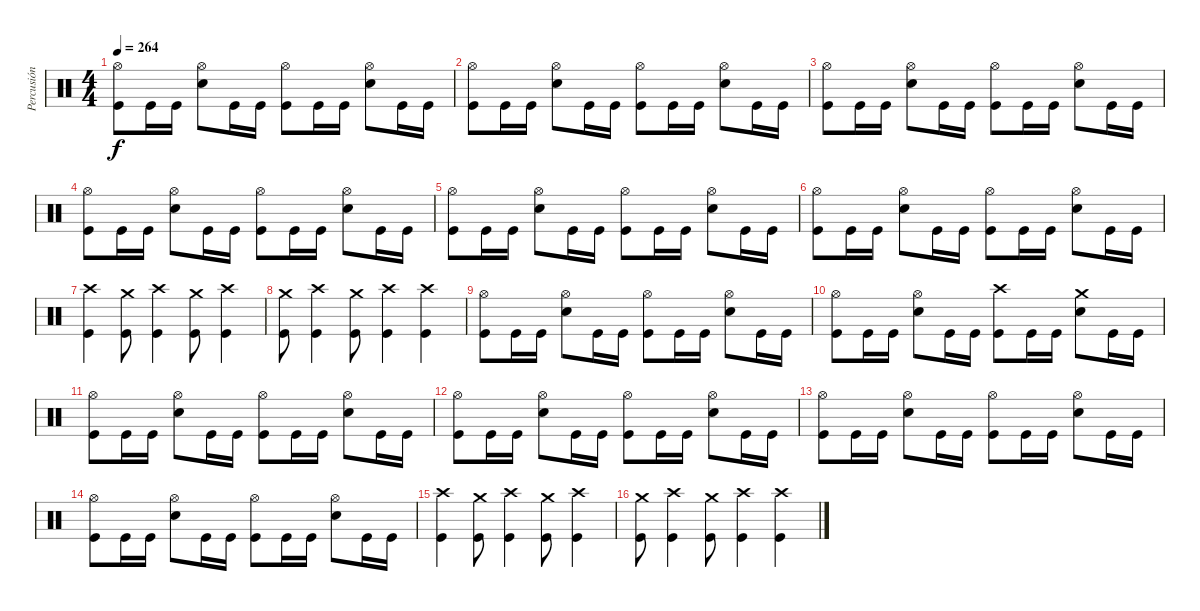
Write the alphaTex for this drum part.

\track ("Percusión" "Percusión") {instrument percussion}
\staff {score}
\articulation defaults
\ts (4 4)
\tempo 264
\clef neutral
\ks c
("Hi-Hat (open)" "Kick (hit)").8{dy f} "Kick (hit)".16 "Kick (hit)".16 ("Hi-Hat (open)" "Snare (hit) 2").8 "Kick (hit)".16 "Kick (hit)".16 ("Hi-Hat (open)" "Kick (hit)").8 "Kick (hit)".16 "Kick (hit)".16 ("Hi-Hat (open)" "Snare (hit) 2").8 "Kick (hit)".16 "Kick (hit)".16 |
("Hi-Hat (open)" "Kick (hit)").8 "Kick (hit)".16 "Kick (hit)".16 ("Hi-Hat (open)" "Snare (hit) 2").8 "Kick (hit)".16 "Kick (hit)".16 ("Hi-Hat (open)" "Kick (hit)").8 "Kick (hit)".16 "Kick (hit)".16 ("Hi-Hat (open)" "Snare (hit) 2").8 "Kick (hit)".16 "Kick (hit)".16 |
("Hi-Hat (open)" "Kick (hit)").8 "Kick (hit)".16 "Kick (hit)".16 ("Hi-Hat (open)" "Snare (hit) 2").8 "Kick (hit)".16 "Kick (hit)".16 ("Hi-Hat (open)" "Kick (hit)").8 "Kick (hit)".16 "Kick (hit)".16 ("Hi-Hat (open)" "Snare (hit) 2").8 "Kick (hit)".16 "Kick (hit)".16 |
("Hi-Hat (open)" "Kick (hit)").8 "Kick (hit)".16 "Kick (hit)".16 ("Hi-Hat (open)" "Snare (hit) 2").8 "Kick (hit)".16 "Kick (hit)".16 ("Hi-Hat (open)" "Kick (hit)").8 "Kick (hit)".16 "Kick (hit)".16 ("Hi-Hat (open)" "Snare (hit) 2").8 "Kick (hit)".16 "Kick (hit)".16 |
("Hi-Hat (open)" "Kick (hit)").8 "Kick (hit)".16 "Kick (hit)".16 ("Hi-Hat (open)" "Snare (hit) 2").8 "Kick (hit)".16 "Kick (hit)".16 ("Hi-Hat (open)" "Kick (hit)").8 "Kick (hit)".16 "Kick (hit)".16 ("Hi-Hat (open)" "Snare (hit) 2").8 "Kick (hit)".16 "Kick (hit)".16 |
("Hi-Hat (open)" "Kick (hit)").8 "Kick (hit)".16 "Kick (hit)".16 ("Hi-Hat (open)" "Snare (hit) 2").8 "Kick (hit)".16 "Kick (hit)".16 ("Hi-Hat (open)" "Kick (hit)").8 "Kick (hit)".16 "Kick (hit)".16 ("Hi-Hat (open)" "Snare (hit) 2").8 "Kick (hit)".16 "Kick (hit)".16 |
("Crash high (hit)" "Kick (hit)").4 ("Crash medium (hit)" "Kick (hit)").8 ("Crash high (hit)" "Kick (hit)").4 ("Crash medium (hit)" "Kick (hit)").8 ("Crash high (hit)" "Kick (hit)").4 |
("Crash medium (hit)" "Kick (hit)").8 ("Crash high (hit)" "Kick (hit)").4 ("Crash medium (hit)" "Kick (hit)").8 ("Crash high (hit)" "Kick (hit)").4 ("Crash high (hit)" "Kick (hit)").4 |
("Hi-Hat (open)" "Kick (hit)").8 "Kick (hit)".16 "Kick (hit)".16 ("Hi-Hat (open)" "Snare (hit) 2").8 "Kick (hit)".16 "Kick (hit)".16 ("Hi-Hat (open)" "Kick (hit)").8 "Kick (hit)".16 "Kick (hit)".16 ("Hi-Hat (open)" "Snare (hit) 2").8 "Kick (hit)".16 "Kick (hit)".16 |
("Hi-Hat (open)" "Kick (hit)").8 "Kick (hit)".16 "Kick (hit)".16 ("Hi-Hat (open)" "Snare (hit) 2").8 "Kick (hit)".16 "Kick (hit)".16 ("Crash high (hit)" "Kick (hit)").8 "Kick (hit)".16 "Kick (hit)".16 ("Crash medium (hit)" "Snare (hit) 2").8 "Kick (hit)".16 "Kick (hit)".16 |
("Hi-Hat (open)" "Kick (hit)").8 "Kick (hit)".16 "Kick (hit)".16 ("Hi-Hat (open)" "Snare (hit) 2").8 "Kick (hit)".16 "Kick (hit)".16 ("Hi-Hat (open)" "Kick (hit)").8 "Kick (hit)".16 "Kick (hit)".16 ("Hi-Hat (open)" "Snare (hit) 2").8 "Kick (hit)".16 "Kick (hit)".16 |
("Hi-Hat (open)" "Kick (hit)").8 "Kick (hit)".16 "Kick (hit)".16 ("Hi-Hat (open)" "Snare (hit) 2").8 "Kick (hit)".16 "Kick (hit)".16 ("Hi-Hat (open)" "Kick (hit)").8 "Kick (hit)".16 "Kick (hit)".16 ("Hi-Hat (open)" "Snare (hit) 2").8 "Kick (hit)".16 "Kick (hit)".16 |
("Hi-Hat (open)" "Kick (hit)").8 "Kick (hit)".16 "Kick (hit)".16 ("Hi-Hat (open)" "Snare (hit) 2").8 "Kick (hit)".16 "Kick (hit)".16 ("Hi-Hat (open)" "Kick (hit)").8 "Kick (hit)".16 "Kick (hit)".16 ("Hi-Hat (open)" "Snare (hit) 2").8 "Kick (hit)".16 "Kick (hit)".16 |
("Hi-Hat (open)" "Kick (hit)").8 "Kick (hit)".16 "Kick (hit)".16 ("Hi-Hat (open)" "Snare (hit) 2").8 "Kick (hit)".16 "Kick (hit)".16 ("Hi-Hat (open)" "Kick (hit)").8 "Kick (hit)".16 "Kick (hit)".16 ("Hi-Hat (open)" "Snare (hit) 2").8 "Kick (hit)".16 "Kick (hit)".16 |
("Crash high (hit)" "Kick (hit)").4 ("Crash medium (hit)" "Kick (hit)").8 ("Crash high (hit)" "Kick (hit)").4 ("Crash medium (hit)" "Kick (hit)").8 ("Crash high (hit)" "Kick (hit)").4 |
("Crash medium (hit)" "Kick (hit)").8 ("Crash high (hit)" "Kick (hit)").4 ("Crash medium (hit)" "Kick (hit)").8 ("Crash high (hit)" "Kick (hit)").4 ("Crash high (hit)" "Kick (hit)").4
